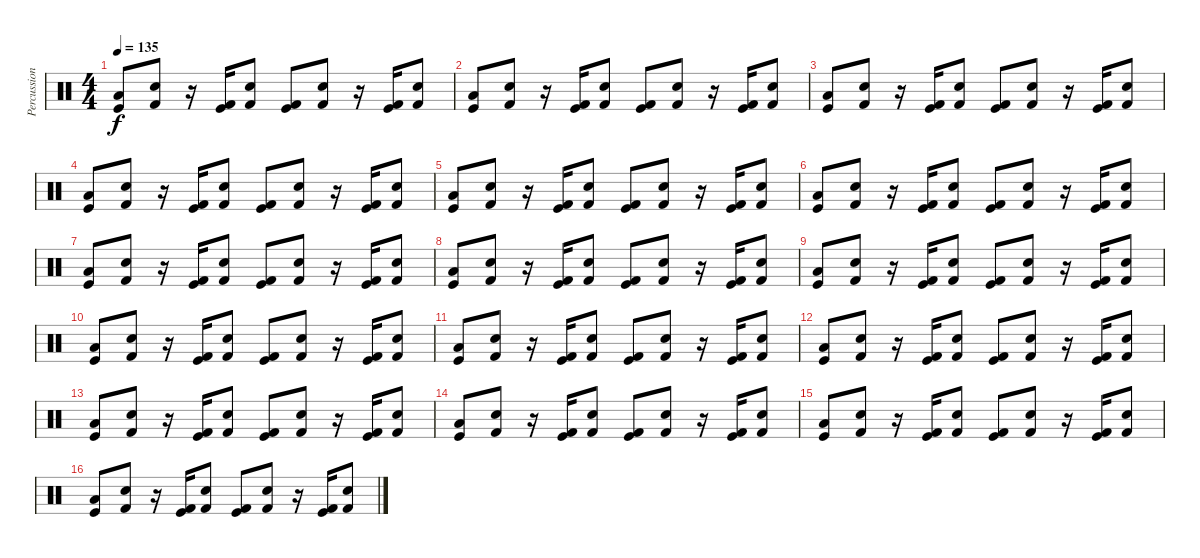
\track ("Percussion" "Percussion") {instrument percussion}
\staff {score}
\articulation defaults
\ts (4 4)
\tempo 135
\clef neutral
\ks c
("Low Tom (hit)" "Kick (hit)").8{dy f} ("Kick (hit) 2" "Snare (hit) 2").8 r.16 ("Kick (hit) 2" "Kick (hit)").16 ("Kick (hit) 2" "Snare (hit) 2").8 ("Kick (hit) 2" "Kick (hit)").8 ("Kick (hit) 2" "Snare (hit) 2").8 r.16 ("Kick (hit) 2" "Kick (hit)").16 ("Kick (hit) 2" "Snare (hit) 2").8 |
("Low Tom (hit)" "Kick (hit)").8 ("Kick (hit) 2" "Snare (hit) 2").8 r.16 ("Kick (hit) 2" "Kick (hit)").16 ("Kick (hit) 2" "Snare (hit) 2").8 ("Kick (hit) 2" "Kick (hit)").8 ("Kick (hit) 2" "Snare (hit) 2").8 r.16 ("Kick (hit) 2" "Kick (hit)").16 ("Kick (hit) 2" "Snare (hit) 2").8 |
("Low Tom (hit)" "Kick (hit)").8 ("Kick (hit) 2" "Snare (hit) 2").8 r.16 ("Kick (hit) 2" "Kick (hit)").16 ("Kick (hit) 2" "Snare (hit) 2").8 ("Kick (hit) 2" "Kick (hit)").8 ("Kick (hit) 2" "Snare (hit) 2").8 r.16 ("Kick (hit) 2" "Kick (hit)").16 ("Kick (hit) 2" "Snare (hit) 2").8 |
("Low Tom (hit)" "Kick (hit)").8 ("Kick (hit) 2" "Snare (hit) 2").8 r.16 ("Kick (hit) 2" "Kick (hit)").16 ("Kick (hit) 2" "Snare (hit) 2").8 ("Kick (hit) 2" "Kick (hit)").8 ("Kick (hit) 2" "Snare (hit) 2").8 r.16 ("Kick (hit) 2" "Kick (hit)").16 ("Kick (hit) 2" "Snare (hit) 2").8 |
("Low Tom (hit)" "Kick (hit)").8 ("Kick (hit) 2" "Snare (hit) 2").8 r.16 ("Kick (hit) 2" "Kick (hit)").16 ("Kick (hit) 2" "Snare (hit) 2").8 ("Kick (hit) 2" "Kick (hit)").8 ("Kick (hit) 2" "Snare (hit) 2").8 r.16 ("Kick (hit) 2" "Kick (hit)").16 ("Kick (hit) 2" "Snare (hit) 2").8 |
("Low Tom (hit)" "Kick (hit)").8 ("Kick (hit) 2" "Snare (hit) 2").8 r.16 ("Kick (hit) 2" "Kick (hit)").16 ("Kick (hit) 2" "Snare (hit) 2").8 ("Kick (hit) 2" "Kick (hit)").8 ("Kick (hit) 2" "Snare (hit) 2").8 r.16 ("Kick (hit) 2" "Kick (hit)").16 ("Kick (hit) 2" "Snare (hit) 2").8 |
("Low Tom (hit)" "Kick (hit)").8 ("Kick (hit) 2" "Snare (hit) 2").8 r.16 ("Kick (hit) 2" "Kick (hit)").16 ("Kick (hit) 2" "Snare (hit) 2").8 ("Kick (hit) 2" "Kick (hit)").8 ("Kick (hit) 2" "Snare (hit) 2").8 r.16 ("Kick (hit) 2" "Kick (hit)").16 ("Kick (hit) 2" "Snare (hit) 2").8 |
("Low Tom (hit)" "Kick (hit)").8 ("Kick (hit) 2" "Snare (hit) 2").8 r.16 ("Kick (hit) 2" "Kick (hit)").16 ("Kick (hit) 2" "Snare (hit) 2").8 ("Kick (hit) 2" "Kick (hit)").8 ("Kick (hit) 2" "Snare (hit) 2").8 r.16 ("Kick (hit) 2" "Kick (hit)").16 ("Kick (hit) 2" "Snare (hit) 2").8 |
("Low Tom (hit)" "Kick (hit)").8 ("Kick (hit) 2" "Snare (hit) 2").8 r.16 ("Kick (hit) 2" "Kick (hit)").16 ("Kick (hit) 2" "Snare (hit) 2").8 ("Kick (hit) 2" "Kick (hit)").8 ("Kick (hit) 2" "Snare (hit) 2").8 r.16 ("Kick (hit) 2" "Kick (hit)").16 ("Kick (hit) 2" "Snare (hit) 2").8 |
("Low Tom (hit)" "Kick (hit)").8 ("Kick (hit) 2" "Snare (hit) 2").8 r.16 ("Kick (hit) 2" "Kick (hit)").16 ("Kick (hit) 2" "Snare (hit) 2").8 ("Kick (hit) 2" "Kick (hit)").8 ("Kick (hit) 2" "Snare (hit) 2").8 r.16 ("Kick (hit) 2" "Kick (hit)").16 ("Kick (hit) 2" "Snare (hit) 2").8 |
("Low Tom (hit)" "Kick (hit)").8 ("Kick (hit) 2" "Snare (hit) 2").8 r.16 ("Kick (hit) 2" "Kick (hit)").16 ("Kick (hit) 2" "Snare (hit) 2").8 ("Kick (hit) 2" "Kick (hit)").8 ("Kick (hit) 2" "Snare (hit) 2").8 r.16 ("Kick (hit) 2" "Kick (hit)").16 ("Kick (hit) 2" "Snare (hit) 2").8 |
("Low Tom (hit)" "Kick (hit)").8 ("Kick (hit) 2" "Snare (hit) 2").8 r.16 ("Kick (hit) 2" "Kick (hit)").16 ("Kick (hit) 2" "Snare (hit) 2").8 ("Kick (hit) 2" "Kick (hit)").8 ("Kick (hit) 2" "Snare (hit) 2").8 r.16 ("Kick (hit) 2" "Kick (hit)").16 ("Kick (hit) 2" "Snare (hit) 2").8 |
("Low Tom (hit)" "Kick (hit)").8 ("Kick (hit) 2" "Snare (hit) 2").8 r.16 ("Kick (hit) 2" "Kick (hit)").16 ("Kick (hit) 2" "Snare (hit) 2").8 ("Kick (hit) 2" "Kick (hit)").8 ("Kick (hit) 2" "Snare (hit) 2").8 r.16 ("Kick (hit) 2" "Kick (hit)").16 ("Kick (hit) 2" "Snare (hit) 2").8 |
("Low Tom (hit)" "Kick (hit)").8 ("Kick (hit) 2" "Snare (hit) 2").8 r.16 ("Kick (hit) 2" "Kick (hit)").16 ("Kick (hit) 2" "Snare (hit) 2").8 ("Kick (hit) 2" "Kick (hit)").8 ("Kick (hit) 2" "Snare (hit) 2").8 r.16 ("Kick (hit) 2" "Kick (hit)").16 ("Kick (hit) 2" "Snare (hit) 2").8 |
("Low Tom (hit)" "Kick (hit)").8 ("Kick (hit) 2" "Snare (hit) 2").8 r.16 ("Kick (hit) 2" "Kick (hit)").16 ("Kick (hit) 2" "Snare (hit) 2").8 ("Kick (hit) 2" "Kick (hit)").8 ("Kick (hit) 2" "Snare (hit) 2").8 r.16 ("Kick (hit) 2" "Kick (hit)").16 ("Kick (hit) 2" "Snare (hit) 2").8 |
("Low Tom (hit)" "Kick (hit)").8 ("Kick (hit) 2" "Snare (hit) 2").8 r.16 ("Kick (hit) 2" "Kick (hit)").16 ("Kick (hit) 2" "Snare (hit) 2").8 ("Kick (hit) 2" "Kick (hit)").8 ("Kick (hit) 2" "Snare (hit) 2").8 r.16 ("Kick (hit) 2" "Kick (hit)").16 ("Kick (hit) 2" "Snare (hit) 2").8
